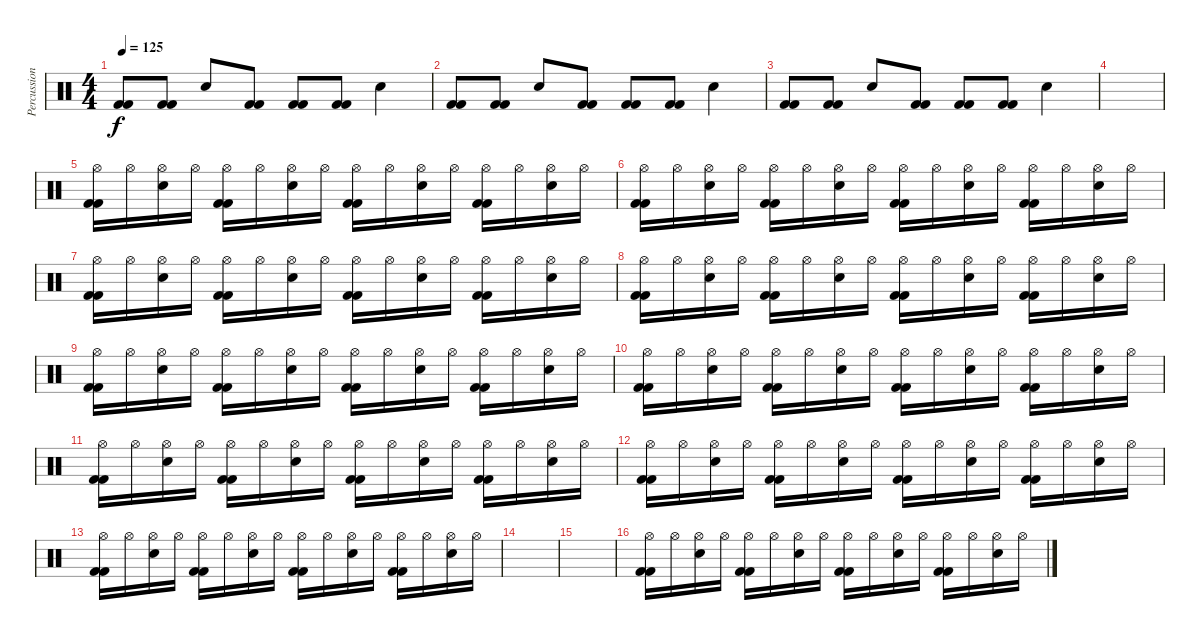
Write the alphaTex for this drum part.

\track ("Percussioni" "Percussion") {instrument percussion}
\staff {score}
\articulation defaults
\ts (4 4)
\tempo 125
\clef neutral
\ks c
("Kick (hit) 2" "Kick (hit) 2").8{dy f} ("Kick (hit) 2" "Kick (hit) 2").8 "Electric Snare (hit)".8 ("Kick (hit) 2" "Kick (hit) 2").8 ("Kick (hit) 2" "Kick (hit) 2").8 ("Kick (hit) 2" "Kick (hit) 2").8 "Electric Snare (hit)".4 |
("Kick (hit) 2" "Kick (hit) 2").8 ("Kick (hit) 2" "Kick (hit) 2").8 "Electric Snare (hit)".8 ("Kick (hit) 2" "Kick (hit) 2").8 ("Kick (hit) 2" "Kick (hit) 2").8 ("Kick (hit) 2" "Kick (hit) 2").8 "Electric Snare (hit)".4 |
("Kick (hit) 2" "Kick (hit) 2").8 ("Kick (hit) 2" "Kick (hit) 2").8 "Electric Snare (hit)".8 ("Kick (hit) 2" "Kick (hit) 2").8 ("Kick (hit) 2" "Kick (hit) 2").8 ("Kick (hit) 2" "Kick (hit) 2").8 "Electric Snare (hit)".4 |
|
("Hi-Hat (open)" "Kick (hit) 2" "Kick (hit) 2").16 "Hi-Hat (open)".16 ("Hi-Hat (open)" "Electric Snare (hit)").16 "Hi-Hat (open)".16 ("Hi-Hat (open)" "Kick (hit) 2" "Kick (hit) 2").16 "Hi-Hat (open)".16 ("Hi-Hat (open)" "Electric Snare (hit)").16 "Hi-Hat (open)".16 ("Hi-Hat (open)" "Kick (hit) 2" "Kick (hit) 2").16 "Hi-Hat (open)".16 ("Hi-Hat (open)" "Electric Snare (hit)").16 "Hi-Hat (open)".16 ("Hi-Hat (open)" "Kick (hit) 2" "Kick (hit) 2").16 "Hi-Hat (open)".16 ("Hi-Hat (open)" "Electric Snare (hit)").16 "Hi-Hat (open)".16 |
("Hi-Hat (open)" "Kick (hit) 2" "Kick (hit) 2").16 "Hi-Hat (open)".16 ("Hi-Hat (open)" "Electric Snare (hit)").16 "Hi-Hat (open)".16 ("Hi-Hat (open)" "Kick (hit) 2" "Kick (hit) 2").16 "Hi-Hat (open)".16 ("Hi-Hat (open)" "Electric Snare (hit)").16 "Hi-Hat (open)".16 ("Hi-Hat (open)" "Kick (hit) 2" "Kick (hit) 2").16 "Hi-Hat (open)".16 ("Hi-Hat (open)" "Electric Snare (hit)").16 "Hi-Hat (open)".16 ("Hi-Hat (open)" "Kick (hit) 2" "Kick (hit) 2").16 "Hi-Hat (open)".16 ("Hi-Hat (open)" "Electric Snare (hit)").16 "Hi-Hat (open)".16 |
("Hi-Hat (open)" "Kick (hit) 2" "Kick (hit) 2").16 "Hi-Hat (open)".16 ("Hi-Hat (open)" "Electric Snare (hit)").16 "Hi-Hat (open)".16 ("Hi-Hat (open)" "Kick (hit) 2" "Kick (hit) 2").16 "Hi-Hat (open)".16 ("Hi-Hat (open)" "Electric Snare (hit)").16 "Hi-Hat (open)".16 ("Hi-Hat (open)" "Kick (hit) 2" "Kick (hit) 2").16 "Hi-Hat (open)".16 ("Hi-Hat (open)" "Electric Snare (hit)").16 "Hi-Hat (open)".16 ("Hi-Hat (open)" "Kick (hit) 2" "Kick (hit) 2").16 "Hi-Hat (open)".16 ("Hi-Hat (open)" "Electric Snare (hit)").16 "Hi-Hat (open)".16 |
("Hi-Hat (open)" "Kick (hit) 2" "Kick (hit) 2").16 "Hi-Hat (open)".16 ("Hi-Hat (open)" "Electric Snare (hit)").16 "Hi-Hat (open)".16 ("Hi-Hat (open)" "Kick (hit) 2" "Kick (hit) 2").16 "Hi-Hat (open)".16 ("Hi-Hat (open)" "Electric Snare (hit)").16 "Hi-Hat (open)".16 ("Hi-Hat (open)" "Kick (hit) 2" "Kick (hit) 2").16 "Hi-Hat (open)".16 ("Hi-Hat (open)" "Electric Snare (hit)").16 "Hi-Hat (open)".16 ("Hi-Hat (open)" "Kick (hit) 2" "Kick (hit) 2").16 "Hi-Hat (open)".16 ("Hi-Hat (open)" "Electric Snare (hit)").16 "Hi-Hat (open)".16 |
("Hi-Hat (open)" "Kick (hit) 2" "Kick (hit) 2").16 "Hi-Hat (open)".16 ("Hi-Hat (open)" "Electric Snare (hit)").16 "Hi-Hat (open)".16 ("Hi-Hat (open)" "Kick (hit) 2" "Kick (hit) 2").16 "Hi-Hat (open)".16 ("Hi-Hat (open)" "Electric Snare (hit)").16 "Hi-Hat (open)".16 ("Hi-Hat (open)" "Kick (hit) 2" "Kick (hit) 2").16 "Hi-Hat (open)".16 ("Hi-Hat (open)" "Electric Snare (hit)").16 "Hi-Hat (open)".16 ("Hi-Hat (open)" "Kick (hit) 2" "Kick (hit) 2").16 "Hi-Hat (open)".16 ("Hi-Hat (open)" "Electric Snare (hit)").16 "Hi-Hat (open)".16 |
("Hi-Hat (open)" "Kick (hit) 2" "Kick (hit) 2").16 "Hi-Hat (open)".16 ("Hi-Hat (open)" "Electric Snare (hit)").16 "Hi-Hat (open)".16 ("Hi-Hat (open)" "Kick (hit) 2" "Kick (hit) 2").16 "Hi-Hat (open)".16 ("Hi-Hat (open)" "Electric Snare (hit)").16 "Hi-Hat (open)".16 ("Hi-Hat (open)" "Kick (hit) 2" "Kick (hit) 2").16 "Hi-Hat (open)".16 ("Hi-Hat (open)" "Electric Snare (hit)").16 "Hi-Hat (open)".16 ("Hi-Hat (open)" "Kick (hit) 2" "Kick (hit) 2").16 "Hi-Hat (open)".16 ("Hi-Hat (open)" "Electric Snare (hit)").16 "Hi-Hat (open)".16 |
("Hi-Hat (open)" "Kick (hit) 2" "Kick (hit) 2").16 "Hi-Hat (open)".16 ("Hi-Hat (open)" "Electric Snare (hit)").16 "Hi-Hat (open)".16 ("Hi-Hat (open)" "Kick (hit) 2" "Kick (hit) 2").16 "Hi-Hat (open)".16 ("Hi-Hat (open)" "Electric Snare (hit)").16 "Hi-Hat (open)".16 ("Hi-Hat (open)" "Kick (hit) 2" "Kick (hit) 2").16 "Hi-Hat (open)".16 ("Hi-Hat (open)" "Electric Snare (hit)").16 "Hi-Hat (open)".16 ("Hi-Hat (open)" "Kick (hit) 2" "Kick (hit) 2").16 "Hi-Hat (open)".16 ("Hi-Hat (open)" "Electric Snare (hit)").16 "Hi-Hat (open)".16 |
("Hi-Hat (open)" "Kick (hit) 2" "Kick (hit) 2").16 "Hi-Hat (open)".16 ("Hi-Hat (open)" "Electric Snare (hit)").16 "Hi-Hat (open)".16 ("Hi-Hat (open)" "Kick (hit) 2" "Kick (hit) 2").16 "Hi-Hat (open)".16 ("Hi-Hat (open)" "Electric Snare (hit)").16 "Hi-Hat (open)".16 ("Hi-Hat (open)" "Kick (hit) 2" "Kick (hit) 2").16 "Hi-Hat (open)".16 ("Hi-Hat (open)" "Electric Snare (hit)").16 "Hi-Hat (open)".16 ("Hi-Hat (open)" "Kick (hit) 2" "Kick (hit) 2").16 "Hi-Hat (open)".16 ("Hi-Hat (open)" "Electric Snare (hit)").16 "Hi-Hat (open)".16 |
("Hi-Hat (open)" "Kick (hit) 2" "Kick (hit) 2").16 "Hi-Hat (open)".16 ("Hi-Hat (open)" "Electric Snare (hit)").16 "Hi-Hat (open)".16 ("Hi-Hat (open)" "Kick (hit) 2" "Kick (hit) 2").16 "Hi-Hat (open)".16 ("Hi-Hat (open)" "Electric Snare (hit)").16 "Hi-Hat (open)".16 ("Hi-Hat (open)" "Kick (hit) 2" "Kick (hit) 2").16 "Hi-Hat (open)".16 ("Hi-Hat (open)" "Electric Snare (hit)").16 "Hi-Hat (open)".16 ("Hi-Hat (open)" "Kick (hit) 2" "Kick (hit) 2").16 "Hi-Hat (open)".16 ("Hi-Hat (open)" "Electric Snare (hit)").16 "Hi-Hat (open)".16 |
|
|
("Hi-Hat (open)" "Kick (hit) 2" "Kick (hit) 2").16 "Hi-Hat (open)".16 ("Hi-Hat (open)" "Electric Snare (hit)").16 "Hi-Hat (open)".16 ("Hi-Hat (open)" "Kick (hit) 2" "Kick (hit) 2").16 "Hi-Hat (open)".16 ("Hi-Hat (open)" "Electric Snare (hit)").16 "Hi-Hat (open)".16 ("Hi-Hat (open)" "Kick (hit) 2" "Kick (hit) 2").16 "Hi-Hat (open)".16 ("Hi-Hat (open)" "Electric Snare (hit)").16 "Hi-Hat (open)".16 ("Hi-Hat (open)" "Kick (hit) 2" "Kick (hit) 2").16 "Hi-Hat (open)".16 ("Hi-Hat (open)" "Electric Snare (hit)").16 "Hi-Hat (open)".16
